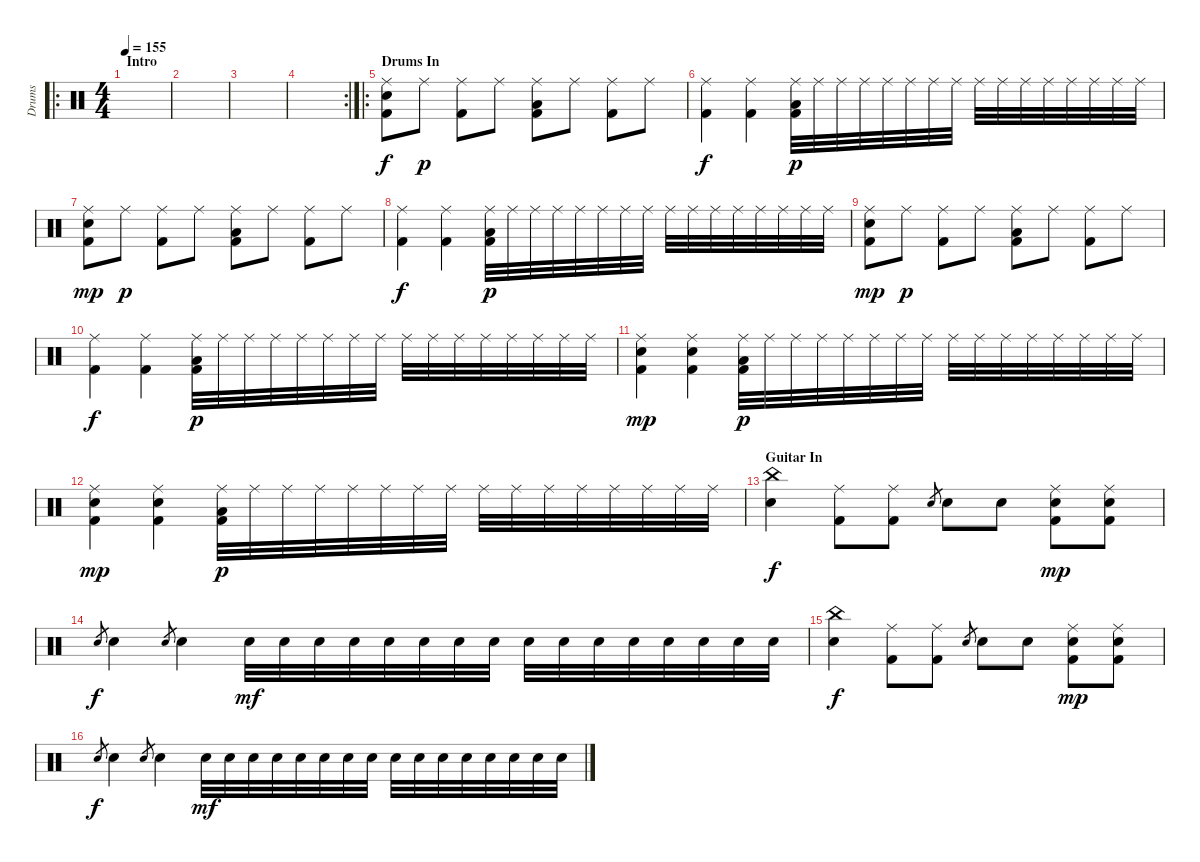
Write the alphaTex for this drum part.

\track ("Drums" "Drums") {instrument percussion}
\staff {score}
\articulation defaults
\ro
\ts (4 4)
\section ("" "Intro")
\tempo 155
\clef neutral
\ks c
|
|
|
\rc 2
|
\ro
\section ("" "Drums In")
("Ride (middle)" "Snare (hit) 2" "Kick (hit) 2").8 "Ride (middle)".8{dy p} ("Ride (middle)" "Kick (hit) 2").8 "Ride (middle)".8 ("Ride (middle)" "Low Tom (hit)" "Kick (hit) 2").8 "Ride (middle)".8 ("Ride (middle)" "Kick (hit) 2").8 "Ride (middle)".8 |
("Ride (middle)" "Kick (hit) 2").4{dy f} ("Ride (middle)" "Kick (hit) 2").4 ("Ride (middle)" "Low Tom (hit)" "Kick (hit) 2").32{dy p} "Ride (middle)".32 "Ride (middle)".32 "Ride (middle)".32 "Ride (middle)".32 "Ride (middle)".32 "Ride (middle)".32 "Ride (middle)".32 "Ride (middle)".32 "Ride (middle)".32 "Ride (middle)".32 "Ride (middle)".32 "Ride (middle)".32 "Ride (middle)".32 "Ride (middle)".32 "Ride (middle)".32 |
("Ride (middle)" "Snare (hit) 2" "Kick (hit) 2").8{dy mp} "Ride (middle)".8{dy p} ("Ride (middle)" "Kick (hit) 2").8 "Ride (middle)".8 ("Ride (middle)" "Low Tom (hit)" "Kick (hit) 2").8 "Ride (middle)".8 ("Ride (middle)" "Kick (hit) 2").8 "Ride (middle)".8 |
("Ride (middle)" "Kick (hit) 2").4{dy f} ("Ride (middle)" "Kick (hit) 2").4 ("Ride (middle)" "Low Tom (hit)" "Kick (hit) 2").32{dy p} "Ride (middle)".32 "Ride (middle)".32 "Ride (middle)".32 "Ride (middle)".32 "Ride (middle)".32 "Ride (middle)".32 "Ride (middle)".32 "Ride (middle)".32 "Ride (middle)".32 "Ride (middle)".32 "Ride (middle)".32 "Ride (middle)".32 "Ride (middle)".32 "Ride (middle)".32 "Ride (middle)".32 |
("Ride (middle)" "Snare (hit) 2" "Kick (hit) 2").8{dy mp} "Ride (middle)".8{dy p} ("Ride (middle)" "Kick (hit) 2").8 "Ride (middle)".8 ("Ride (middle)" "Low Tom (hit)" "Kick (hit) 2").8 "Ride (middle)".8 ("Ride (middle)" "Kick (hit) 2").8 "Ride (middle)".8 |
("Ride (middle)" "Kick (hit) 2").4{dy f} ("Ride (middle)" "Kick (hit) 2").4 ("Ride (middle)" "Low Tom (hit)" "Kick (hit) 2").32{dy p} "Ride (middle)".32 "Ride (middle)".32 "Ride (middle)".32 "Ride (middle)".32 "Ride (middle)".32 "Ride (middle)".32 "Ride (middle)".32 "Ride (middle)".32 "Ride (middle)".32 "Ride (middle)".32 "Ride (middle)".32 "Ride (middle)".32 "Ride (middle)".32 "Ride (middle)".32 "Ride (middle)".32 |
("Ride (middle)" "Snare (hit) 2" "Kick (hit) 2").4{dy mp} ("Ride (middle)" "Snare (hit) 2" "Kick (hit) 2").4 ("Ride (middle)" "Low Tom (hit)" "Kick (hit) 2").32{dy p} "Ride (middle)".32 "Ride (middle)".32 "Ride (middle)".32 "Ride (middle)".32 "Ride (middle)".32 "Ride (middle)".32 "Ride (middle)".32 "Ride (middle)".32 "Ride (middle)".32 "Ride (middle)".32 "Ride (middle)".32 "Ride (middle)".32 "Ride (middle)".32 "Ride (middle)".32 "Ride (middle)".32 |
("Ride (middle)" "Snare (hit) 2" "Kick (hit) 2").4{dy mp} ("Ride (middle)" "Snare (hit) 2" "Kick (hit) 2").4 ("Ride (middle)" "Low Tom (hit)" "Kick (hit) 2").32{dy p} "Ride (middle)".32 "Ride (middle)".32 "Ride (middle)".32 "Ride (middle)".32 "Ride (middle)".32 "Ride (middle)".32 "Ride (middle)".32 "Ride (middle)".32 "Ride (middle)".32 "Ride (middle)".32 "Ride (middle)".32 "Ride (middle)".32 "Ride (middle)".32 "Ride (middle)".32 "Ride (middle)".32 |
\section ("" "Guitar In")
("China (hit)" "Snare (hit) 2").4{dy f} ("Ride (middle)" "Kick (hit) 2").8 ("Ride (middle)" "Kick (hit) 2").8 "Snare (hit) 2".8{gr} "Snare (hit) 2".8 "Snare (hit) 2".8 ("Ride (middle)" "Snare (hit) 2" "Kick (hit) 2").8{dy mp} ("Ride (middle)" "Snare (hit) 2" "Kick (hit) 2").8 |
"Snare (hit) 2".8{gr dy f} "Snare (hit) 2".4 "Snare (hit) 2".8{gr} "Snare (hit) 2".4 "Snare (hit) 2".32{dy mf} "Snare (hit) 2".32 "Snare (hit) 2".32 "Snare (hit) 2".32 "Snare (hit) 2".32 "Snare (hit) 2".32 "Snare (hit) 2".32 "Snare (hit) 2".32 "Snare (hit) 2".32 "Snare (hit) 2".32 "Snare (hit) 2".32 "Snare (hit) 2".32 "Snare (hit) 2".32 "Snare (hit) 2".32 "Snare (hit) 2".32 "Snare (hit) 2".32 |
("China (hit)" "Snare (hit) 2").4{dy f} ("Ride (middle)" "Kick (hit) 2").8 ("Ride (middle)" "Kick (hit) 2").8 "Snare (hit) 2".8{gr} "Snare (hit) 2".8 "Snare (hit) 2".8 ("Ride (middle)" "Snare (hit) 2" "Kick (hit) 2").8{dy mp} ("Ride (middle)" "Snare (hit) 2" "Kick (hit) 2").8 |
"Snare (hit) 2".8{gr dy f} "Snare (hit) 2".4 "Snare (hit) 2".8{gr} "Snare (hit) 2".4 "Snare (hit) 2".32{dy mf} "Snare (hit) 2".32 "Snare (hit) 2".32 "Snare (hit) 2".32 "Snare (hit) 2".32 "Snare (hit) 2".32 "Snare (hit) 2".32 "Snare (hit) 2".32 "Snare (hit) 2".32 "Snare (hit) 2".32 "Snare (hit) 2".32 "Snare (hit) 2".32 "Snare (hit) 2".32 "Snare (hit) 2".32 "Snare (hit) 2".32 "Snare (hit) 2".32
